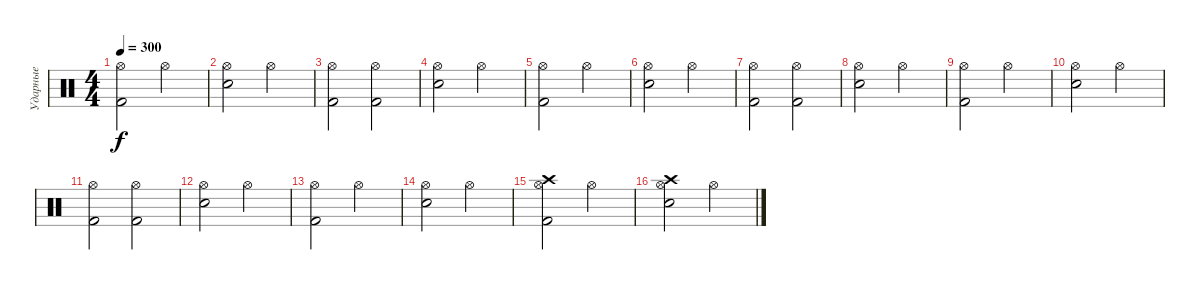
\track ("Ударные" "Ударные") {instrument percussion}
\staff {score}
\articulation defaults
\ts (4 4)
\tempo 300
\clef neutral
\ks c
("Hi-Hat (open)" "Kick (hit) 2").2{dy f} "Hi-Hat (open)".2 |
("Hi-Hat (open)" "Snare (hit) 2").2 "Hi-Hat (open)".2 |
("Hi-Hat (open)" "Kick (hit) 2").2 ("Hi-Hat (open)" "Kick (hit) 2").2 |
("Hi-Hat (open)" "Snare (hit) 2").2 "Hi-Hat (open)".2 |
("Hi-Hat (open)" "Kick (hit) 2").2 "Hi-Hat (open)".2 |
("Hi-Hat (open)" "Snare (hit) 2").2 "Hi-Hat (open)".2 |
("Hi-Hat (open)" "Kick (hit) 2").2 ("Hi-Hat (open)" "Kick (hit) 2").2 |
("Hi-Hat (open)" "Snare (hit) 2").2 "Hi-Hat (open)".2 |
("Hi-Hat (open)" "Kick (hit) 2").2 "Hi-Hat (open)".2 |
("Hi-Hat (open)" "Snare (hit) 2").2 "Hi-Hat (open)".2 |
("Hi-Hat (open)" "Kick (hit) 2").2 ("Hi-Hat (open)" "Kick (hit) 2").2 |
("Hi-Hat (open)" "Snare (hit) 2").2 "Hi-Hat (open)".2 |
("Hi-Hat (open)" "Kick (hit) 2").2 "Hi-Hat (open)".2 |
("Hi-Hat (open)" "Snare (hit) 2").2 "Hi-Hat (open)".2 |
("Hi-Hat (open)" "Crash high (hit)" "Kick (hit) 2").2 "Hi-Hat (open)".2 |
("Hi-Hat (open)" "Snare (hit) 2" "Crash high (hit)").2 "Hi-Hat (open)".2
